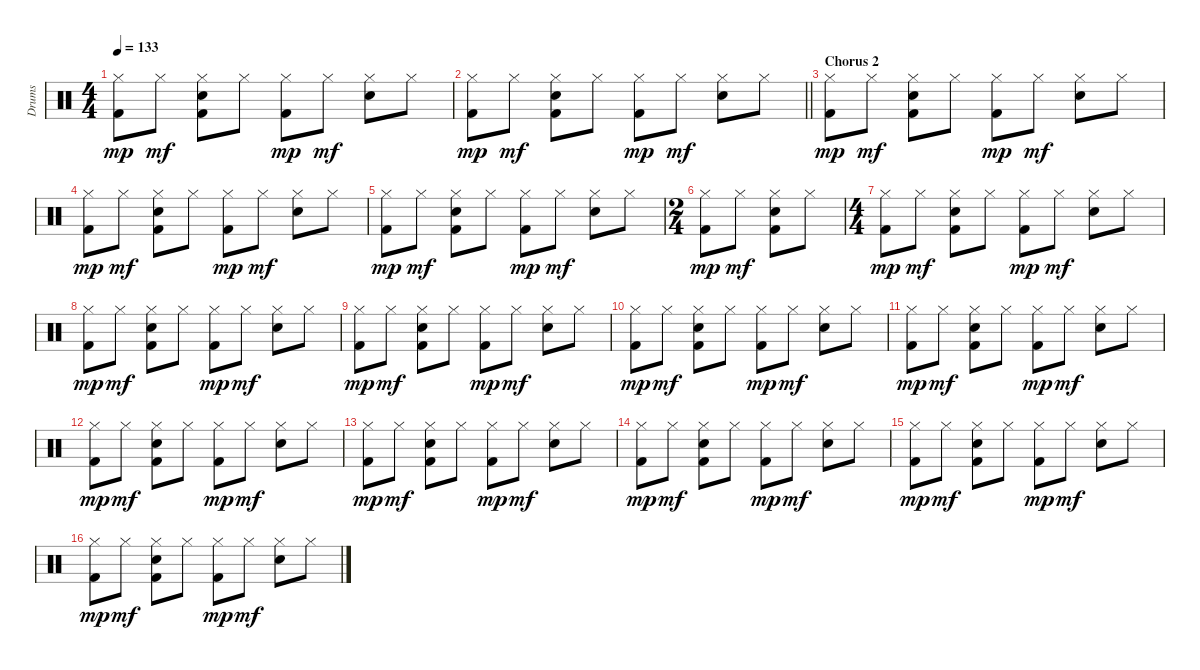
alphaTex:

\track ("Drums" "Drums") {instrument percussion}
\staff {score}
\articulation defaults
\ts (4 4)
\tempo 133
\clef neutral
\ks c
("Kick (hit) 2" "Hi-Hat (closed)").8{dy mp} "Hi-Hat (closed)".8{dy mf} ("Kick (hit) 2" "Snare (hit) 2" "Hi-Hat (closed)").8 "Hi-Hat (closed)".8 ("Kick (hit) 2" "Hi-Hat (closed)").8{dy mp} "Hi-Hat (closed)".8{dy mf} ("Snare (hit) 2" "Hi-Hat (closed)").8 "Hi-Hat (closed)".8 |
\barLineRight lightlight
("Kick (hit) 2" "Hi-Hat (closed)").8{dy mp} "Hi-Hat (closed)".8{dy mf} ("Kick (hit) 2" "Snare (hit) 2" "Hi-Hat (closed)").8 "Hi-Hat (closed)".8 ("Kick (hit) 2" "Hi-Hat (closed)").8{dy mp} "Hi-Hat (closed)".8{dy mf} ("Snare (hit) 2" "Hi-Hat (closed)").8 "Hi-Hat (closed)".8 |
\section ("" "Chorus 2")
("Kick (hit) 2" "Hi-Hat (closed)").8{dy mp} "Hi-Hat (closed)".8{dy mf} ("Kick (hit) 2" "Snare (hit) 2" "Hi-Hat (closed)").8 "Hi-Hat (closed)".8 ("Kick (hit) 2" "Hi-Hat (closed)").8{dy mp} "Hi-Hat (closed)".8{dy mf} ("Snare (hit) 2" "Hi-Hat (closed)").8 "Hi-Hat (closed)".8 |
("Kick (hit) 2" "Hi-Hat (closed)").8{dy mp} "Hi-Hat (closed)".8{dy mf} ("Kick (hit) 2" "Snare (hit) 2" "Hi-Hat (closed)").8 "Hi-Hat (closed)".8 ("Kick (hit) 2" "Hi-Hat (closed)").8{dy mp} "Hi-Hat (closed)".8{dy mf} ("Snare (hit) 2" "Hi-Hat (closed)").8 "Hi-Hat (closed)".8 |
("Kick (hit) 2" "Hi-Hat (closed)").8{dy mp} "Hi-Hat (closed)".8{dy mf} ("Kick (hit) 2" "Snare (hit) 2" "Hi-Hat (closed)").8 "Hi-Hat (closed)".8 ("Kick (hit) 2" "Hi-Hat (closed)").8{dy mp} "Hi-Hat (closed)".8{dy mf} ("Snare (hit) 2" "Hi-Hat (closed)").8 "Hi-Hat (closed)".8 |
\ts (2 4)
("Kick (hit) 2" "Hi-Hat (closed)").8{dy mp} "Hi-Hat (closed)".8{dy mf} ("Kick (hit) 2" "Snare (hit) 2" "Hi-Hat (closed)").8 "Hi-Hat (closed)".8 |
\ts (4 4)
("Kick (hit) 2" "Hi-Hat (closed)").8{dy mp} "Hi-Hat (closed)".8{dy mf} ("Kick (hit) 2" "Snare (hit) 2" "Hi-Hat (closed)").8 "Hi-Hat (closed)".8 ("Kick (hit) 2" "Hi-Hat (closed)").8{dy mp} "Hi-Hat (closed)".8{dy mf} ("Snare (hit) 2" "Hi-Hat (closed)").8 "Hi-Hat (closed)".8 |
("Kick (hit) 2" "Hi-Hat (closed)").8{dy mp} "Hi-Hat (closed)".8{dy mf} ("Kick (hit) 2" "Snare (hit) 2" "Hi-Hat (closed)").8 "Hi-Hat (closed)".8 ("Kick (hit) 2" "Hi-Hat (closed)").8{dy mp} "Hi-Hat (closed)".8{dy mf} ("Snare (hit) 2" "Hi-Hat (closed)").8 "Hi-Hat (closed)".8 |
("Kick (hit) 2" "Hi-Hat (closed)").8{dy mp} "Hi-Hat (closed)".8{dy mf} ("Kick (hit) 2" "Snare (hit) 2" "Hi-Hat (closed)").8 "Hi-Hat (closed)".8 ("Kick (hit) 2" "Hi-Hat (closed)").8{dy mp} "Hi-Hat (closed)".8{dy mf} ("Snare (hit) 2" "Hi-Hat (closed)").8 "Hi-Hat (closed)".8 |
("Kick (hit) 2" "Hi-Hat (closed)").8{dy mp} "Hi-Hat (closed)".8{dy mf} ("Kick (hit) 2" "Snare (hit) 2" "Hi-Hat (closed)").8 "Hi-Hat (closed)".8 ("Kick (hit) 2" "Hi-Hat (closed)").8{dy mp} "Hi-Hat (closed)".8{dy mf} ("Snare (hit) 2" "Hi-Hat (closed)").8 "Hi-Hat (closed)".8 |
("Kick (hit) 2" "Hi-Hat (closed)").8{dy mp} "Hi-Hat (closed)".8{dy mf} ("Kick (hit) 2" "Snare (hit) 2" "Hi-Hat (closed)").8 "Hi-Hat (closed)".8 ("Kick (hit) 2" "Hi-Hat (closed)").8{dy mp} "Hi-Hat (closed)".8{dy mf} ("Snare (hit) 2" "Hi-Hat (closed)").8 "Hi-Hat (closed)".8 |
("Kick (hit) 2" "Hi-Hat (closed)").8{dy mp} "Hi-Hat (closed)".8{dy mf} ("Kick (hit) 2" "Snare (hit) 2" "Hi-Hat (closed)").8 "Hi-Hat (closed)".8 ("Kick (hit) 2" "Hi-Hat (closed)").8{dy mp} "Hi-Hat (closed)".8{dy mf} ("Snare (hit) 2" "Hi-Hat (closed)").8 "Hi-Hat (closed)".8 |
("Kick (hit) 2" "Hi-Hat (closed)").8{dy mp} "Hi-Hat (closed)".8{dy mf} ("Kick (hit) 2" "Snare (hit) 2" "Hi-Hat (closed)").8 "Hi-Hat (closed)".8 ("Kick (hit) 2" "Hi-Hat (closed)").8{dy mp} "Hi-Hat (closed)".8{dy mf} ("Snare (hit) 2" "Hi-Hat (closed)").8 "Hi-Hat (closed)".8 |
("Kick (hit) 2" "Hi-Hat (closed)").8{dy mp} "Hi-Hat (closed)".8{dy mf} ("Kick (hit) 2" "Snare (hit) 2" "Hi-Hat (closed)").8 "Hi-Hat (closed)".8 ("Kick (hit) 2" "Hi-Hat (closed)").8{dy mp} "Hi-Hat (closed)".8{dy mf} ("Snare (hit) 2" "Hi-Hat (closed)").8 "Hi-Hat (closed)".8 |
("Kick (hit) 2" "Hi-Hat (closed)").8{dy mp} "Hi-Hat (closed)".8{dy mf} ("Kick (hit) 2" "Snare (hit) 2" "Hi-Hat (closed)").8 "Hi-Hat (closed)".8 ("Kick (hit) 2" "Hi-Hat (closed)").8{dy mp} "Hi-Hat (closed)".8{dy mf} ("Snare (hit) 2" "Hi-Hat (closed)").8 "Hi-Hat (closed)".8 |
("Kick (hit) 2" "Hi-Hat (closed)").8{dy mp} "Hi-Hat (closed)".8{dy mf} ("Kick (hit) 2" "Snare (hit) 2" "Hi-Hat (closed)").8 "Hi-Hat (closed)".8 ("Kick (hit) 2" "Hi-Hat (closed)").8{dy mp} "Hi-Hat (closed)".8{dy mf} ("Snare (hit) 2" "Hi-Hat (closed)").8 "Hi-Hat (closed)".8
